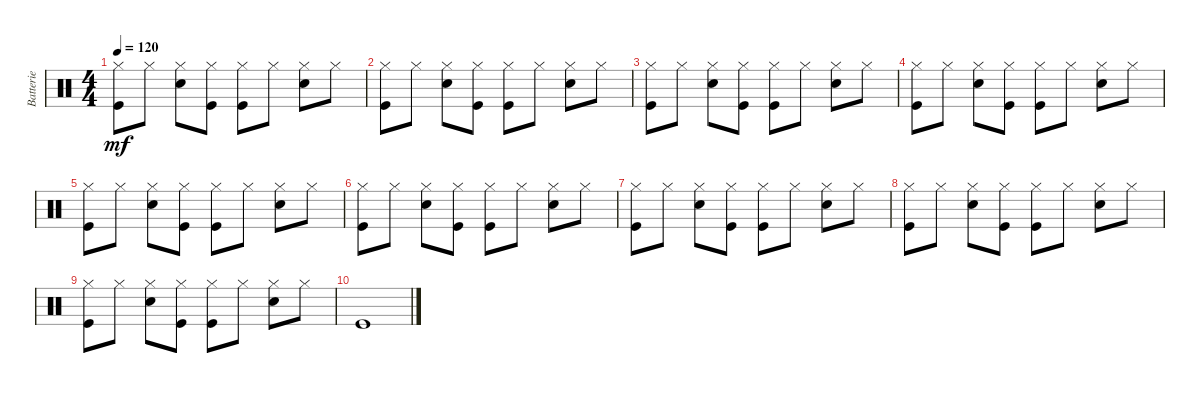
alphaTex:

\track ("Batterie" "Batterie") {instrument percussion}
\staff {score}
\articulation defaults
\ts (4 4)
\tempo 120
\clef neutral
\ks c
("Hi-Hat (closed)" "Kick (hit)").8{dy mf} "Hi-Hat (closed)".8 ("Hi-Hat (closed)" "Snare (hit) 2").8 ("Hi-Hat (closed)" "Kick (hit)").8 ("Hi-Hat (closed)" "Kick (hit)").8 "Hi-Hat (closed)".8 ("Hi-Hat (closed)" "Snare (hit) 2").8 "Hi-Hat (closed)".8 |
("Hi-Hat (closed)" "Kick (hit)").8 "Hi-Hat (closed)".8 ("Hi-Hat (closed)" "Snare (hit) 2").8 ("Hi-Hat (closed)" "Kick (hit)").8 ("Hi-Hat (closed)" "Kick (hit)").8 "Hi-Hat (closed)".8 ("Hi-Hat (closed)" "Snare (hit) 2").8 "Hi-Hat (closed)".8 |
("Hi-Hat (closed)" "Kick (hit)").8 "Hi-Hat (closed)".8 ("Hi-Hat (closed)" "Snare (hit) 2").8 ("Hi-Hat (closed)" "Kick (hit)").8 ("Hi-Hat (closed)" "Kick (hit)").8 "Hi-Hat (closed)".8 ("Hi-Hat (closed)" "Snare (hit) 2").8 "Hi-Hat (closed)".8 |
("Hi-Hat (closed)" "Kick (hit)").8 "Hi-Hat (closed)".8 ("Hi-Hat (closed)" "Snare (hit) 2").8 ("Hi-Hat (closed)" "Kick (hit)").8 ("Hi-Hat (closed)" "Kick (hit)").8 "Hi-Hat (closed)".8 ("Hi-Hat (closed)" "Snare (hit) 2").8 "Hi-Hat (closed)".8 |
("Hi-Hat (closed)" "Kick (hit)").8 "Hi-Hat (closed)".8 ("Hi-Hat (closed)" "Snare (hit) 2").8 ("Hi-Hat (closed)" "Kick (hit)").8 ("Hi-Hat (closed)" "Kick (hit)").8 "Hi-Hat (closed)".8 ("Hi-Hat (closed)" "Snare (hit) 2").8 "Hi-Hat (closed)".8 |
("Hi-Hat (closed)" "Kick (hit)").8 "Hi-Hat (closed)".8 ("Hi-Hat (closed)" "Snare (hit) 2").8 ("Hi-Hat (closed)" "Kick (hit)").8 ("Hi-Hat (closed)" "Kick (hit)").8 "Hi-Hat (closed)".8 ("Hi-Hat (closed)" "Snare (hit) 2").8 "Hi-Hat (closed)".8 |
("Hi-Hat (closed)" "Kick (hit)").8 "Hi-Hat (closed)".8 ("Hi-Hat (closed)" "Snare (hit) 2").8 ("Hi-Hat (closed)" "Kick (hit)").8 ("Hi-Hat (closed)" "Kick (hit)").8 "Hi-Hat (closed)".8 ("Hi-Hat (closed)" "Snare (hit) 2").8 "Hi-Hat (closed)".8 |
("Hi-Hat (closed)" "Kick (hit)").8 "Hi-Hat (closed)".8 ("Hi-Hat (closed)" "Snare (hit) 2").8 ("Hi-Hat (closed)" "Kick (hit)").8 ("Hi-Hat (closed)" "Kick (hit)").8 "Hi-Hat (closed)".8 ("Hi-Hat (closed)" "Snare (hit) 2").8 "Hi-Hat (closed)".8 |
("Hi-Hat (closed)" "Kick (hit)").8 "Hi-Hat (closed)".8 ("Hi-Hat (closed)" "Snare (hit) 2").8 ("Hi-Hat (closed)" "Kick (hit)").8 ("Hi-Hat (closed)" "Kick (hit)").8 "Hi-Hat (closed)".8 ("Hi-Hat (closed)" "Snare (hit) 2").8 "Hi-Hat (closed)".8 |
"Kick (hit)".1
